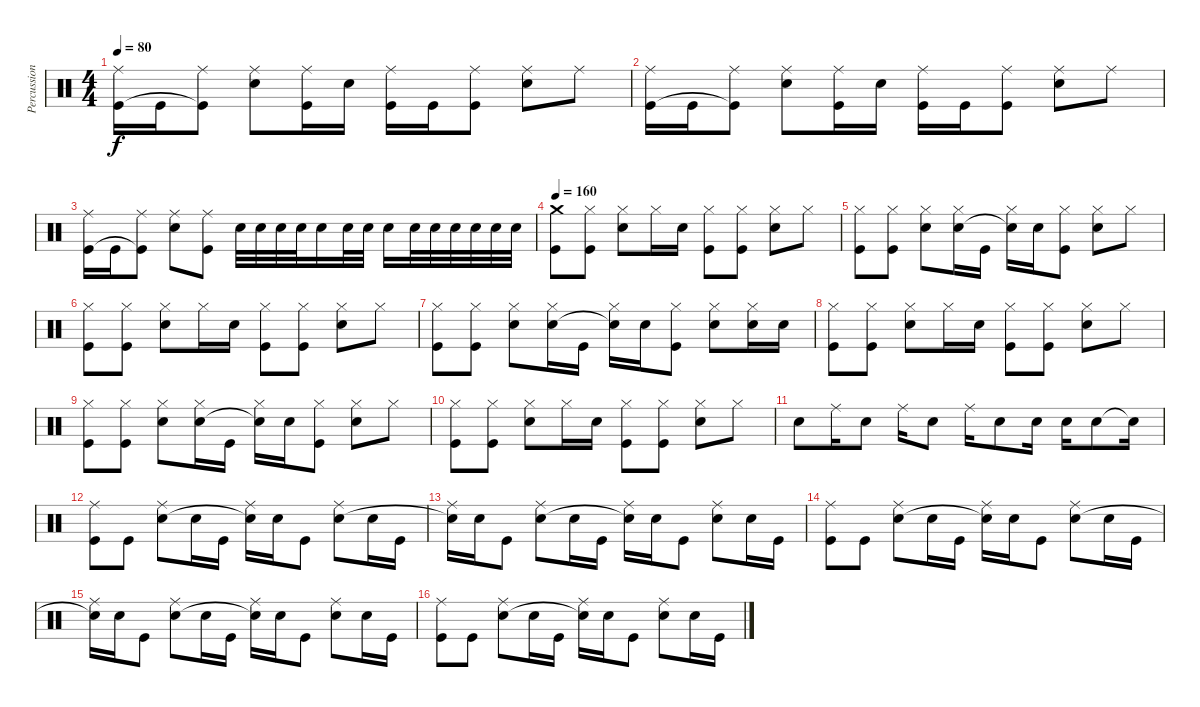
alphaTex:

\track ("Percussion" "Percussion") {instrument percussion}
\staff {score}
\articulation defaults
\ts (4 4)
\tempo 80
\clef neutral
\ks c
("Ride (middle)" "Kick (hit)").16{dy f} "Kick (hit)".16 ("Ride (middle)" "Kick (hit)"{t}).8 ("Ride (middle)" "Snare (hit) 2").8 ("Ride (middle)" "Kick (hit)").16 "Snare (hit) 2".16 ("Ride (middle)" "Kick (hit)").16 "Kick (hit)".16 ("Ride (middle)" "Kick (hit)").8 ("Ride (middle)" "Snare (hit) 2").8 "Ride (middle)".8 |
("Ride (middle)" "Kick (hit)").16 "Kick (hit)".16 ("Ride (middle)" "Kick (hit)"{t}).8 ("Ride (middle)" "Snare (hit) 2").8 ("Ride (middle)" "Kick (hit)").16 "Snare (hit) 2".16 ("Ride (middle)" "Kick (hit)").16 "Kick (hit)".16 ("Ride (middle)" "Kick (hit)").8 ("Ride (middle)" "Snare (hit) 2").8 "Ride (middle)".8 |
("Ride (middle)" "Kick (hit)").16 "Kick (hit)".16 ("Ride (middle)" "Kick (hit)"{t}).8 ("Ride (middle)" "Snare (hit) 2").8 ("Ride (middle)" "Kick (hit)").8 "Snare (hit) 2".32 "Snare (hit) 2".32 "Snare (hit) 2".32 "Snare (hit) 2".32 "Snare (hit) 2".16 "Snare (hit) 2".32 "Snare (hit) 2".32 "Snare (hit) 2".16 "Snare (hit) 2".32 "Snare (hit) 2".32 "Snare (hit) 2".32 "Snare (hit) 2".32 "Snare (hit) 2".32 "Snare (hit) 2".32 |
\tempo 160
("Crash medium (hit)" "Kick (hit)").8 ("Hi-Hat (closed)" "Kick (hit)").8 ("Hi-Hat (closed)" "Snare (hit) 2").8 "Hi-Hat (closed)".16 "Snare (hit) 2".16 ("Hi-Hat (closed)" "Kick (hit)").8 ("Hi-Hat (closed)" "Kick (hit)").8 ("Hi-Hat (closed)" "Snare (hit) 2").8 "Hi-Hat (closed)".8 |
("Hi-Hat (closed)" "Kick (hit)").8 ("Hi-Hat (closed)" "Kick (hit)").8 ("Hi-Hat (closed)" "Snare (hit) 2").8 ("Hi-Hat (closed)" "Snare (hit) 2").16 "Kick (hit)".16 ("Hi-Hat (closed)" "Snare (hit)"{t}).16 "Snare (hit) 2".16 ("Hi-Hat (closed)" "Kick (hit)").8 ("Hi-Hat (closed)" "Snare (hit) 2").8 "Hi-Hat (closed)".8 |
("Hi-Hat (closed)" "Kick (hit)").8 ("Hi-Hat (closed)" "Kick (hit)").8 ("Hi-Hat (closed)" "Snare (hit) 2").8 "Hi-Hat (closed)".16 "Snare (hit) 2".16 ("Hi-Hat (closed)" "Kick (hit)").8 ("Hi-Hat (closed)" "Kick (hit)").8 ("Hi-Hat (closed)" "Snare (hit) 2").8 "Hi-Hat (closed)".8 |
("Hi-Hat (closed)" "Kick (hit)").8 ("Hi-Hat (closed)" "Kick (hit)").8 ("Hi-Hat (closed)" "Snare (hit) 2").8 ("Hi-Hat (closed)" "Snare (hit) 2").16 "Kick (hit)".16 ("Hi-Hat (closed)" "Snare (hit)"{t}).16 "Snare (hit) 2".16 ("Hi-Hat (closed)" "Kick (hit)").8 ("Hi-Hat (closed)" "Snare (hit) 2").8 ("Hi-Hat (closed)" "Snare (hit) 2").16 "Snare (hit) 2".16 |
("Hi-Hat (closed)" "Kick (hit)").8 ("Hi-Hat (closed)" "Kick (hit)").8 ("Hi-Hat (closed)" "Snare (hit) 2").8 "Hi-Hat (closed)".16 "Snare (hit) 2".16 ("Hi-Hat (closed)" "Kick (hit)").8 ("Hi-Hat (closed)" "Kick (hit)").8 ("Hi-Hat (closed)" "Snare (hit) 2").8 "Hi-Hat (closed)".8 |
("Hi-Hat (closed)" "Kick (hit)").8 ("Hi-Hat (closed)" "Kick (hit)").8 ("Hi-Hat (closed)" "Snare (hit) 2").8 ("Hi-Hat (closed)" "Snare (hit) 2").16 "Kick (hit)".16 ("Hi-Hat (closed)" "Snare (hit)"{t}).16 "Snare (hit) 2".16 ("Hi-Hat (closed)" "Kick (hit)").8 ("Hi-Hat (closed)" "Snare (hit) 2").8 "Hi-Hat (closed)".8 |
("Hi-Hat (closed)" "Kick (hit)").8 ("Hi-Hat (closed)" "Kick (hit)").8 ("Hi-Hat (closed)" "Snare (hit) 2").8 "Hi-Hat (closed)".16 "Snare (hit) 2".16 ("Hi-Hat (closed)" "Kick (hit)").8 ("Hi-Hat (closed)" "Kick (hit)").8 ("Hi-Hat (closed)" "Snare (hit) 2").8 "Hi-Hat (closed)".8 |
"Snare (hit) 2".8 "Ride (middle)".16 "Snare (hit) 2".8 "Ride (middle)".16 "Snare (hit) 2".8 "Ride (middle)".16 "Snare (hit) 2".8 "Snare (hit) 2".16 "Snare (hit) 2".16 "Snare (hit) 2".8 "Snare (hit)"{t}.16 |
("Ride (middle)" "Kick (hit)").8 "Kick (hit)".8 ("Ride (middle)" "Snare (hit) 2").8 "Snare (hit) 2".16 "Kick (hit)".16 ("Ride (middle)" "Snare (hit)"{t}).16 "Snare (hit) 2".16 "Kick (hit)".8 ("Ride (middle)" "Snare (hit) 2").8 "Snare (hit) 2".16 "Kick (hit)".16 |
("Ride (middle)" "Snare (hit)"{t}).16 "Snare (hit) 2".16 "Kick (hit)".8 ("Ride (middle)" "Snare (hit) 2").8 "Snare (hit) 2".16 "Kick (hit)".16 ("Ride (middle)" "Snare (hit)"{t}).16 "Snare (hit) 2".16 "Kick (hit)".8 ("Ride (middle)" "Snare (hit) 2").8 "Snare (hit) 2".16 "Kick (hit)".16 |
("Ride (middle)" "Kick (hit)").8 "Kick (hit)".8 ("Ride (middle)" "Snare (hit) 2").8 "Snare (hit) 2".16 "Kick (hit)".16 ("Ride (middle)" "Snare (hit)"{t}).16 "Snare (hit) 2".16 "Kick (hit)".8 ("Ride (middle)" "Snare (hit) 2").8 "Snare (hit) 2".16 "Kick (hit)".16 |
("Ride (middle)" "Snare (hit)"{t}).16 "Snare (hit) 2".16 "Kick (hit)".8 ("Ride (middle)" "Snare (hit) 2").8 "Snare (hit) 2".16 "Kick (hit)".16 ("Ride (middle)" "Snare (hit)"{t}).16 "Snare (hit) 2".16 "Kick (hit)".8 ("Ride (middle)" "Snare (hit) 2").8 "Snare (hit) 2".16 "Kick (hit)".16 |
("Ride (middle)" "Kick (hit)").8 "Kick (hit)".8 ("Ride (middle)" "Snare (hit) 2").8 "Snare (hit) 2".16 "Kick (hit)".16 ("Ride (middle)" "Snare (hit)"{t}).16 "Snare (hit) 2".16 "Kick (hit)".8 ("Ride (middle)" "Snare (hit) 2").8 "Snare (hit) 2".16 "Kick (hit)".16
